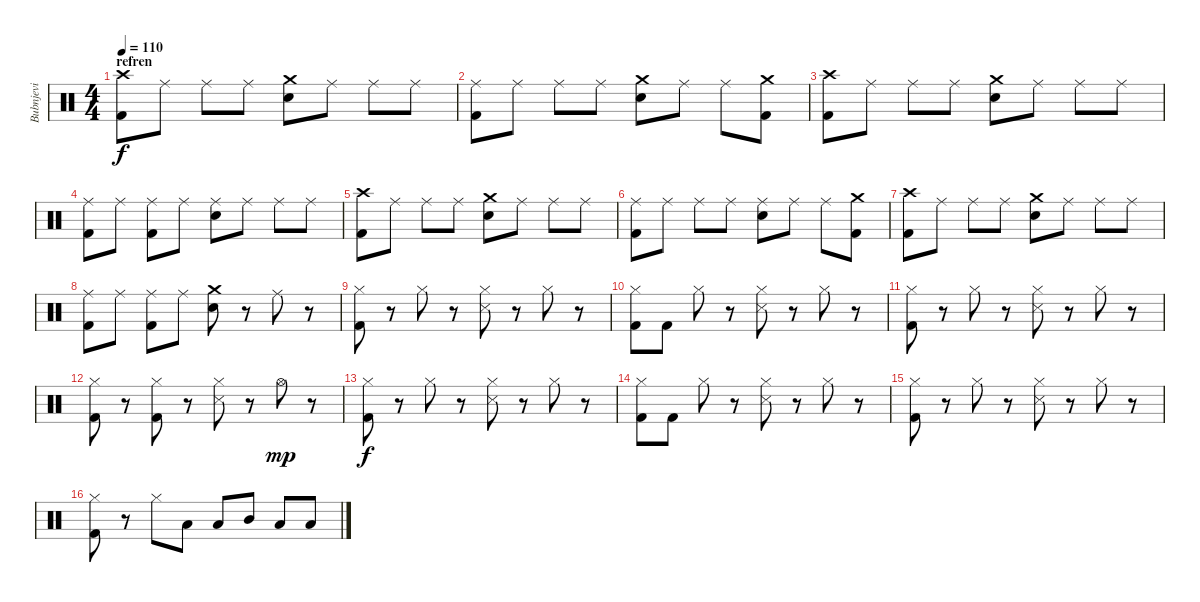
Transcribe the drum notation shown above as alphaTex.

\track ("Bubnjevi" "Bubnjevi") {instrument percussion}
\staff {score}
\articulation defaults
\ts (4 4)
\section ("" "refren")
\tempo 110
\clef neutral
\ks c
("Crash high (hit)" "Kick (hit) 2").8{dy f} "Ride (middle)".8 "Ride (middle)".8 "Ride (middle)".8 ("Crash medium (hit)" "Electric Snare (hit)").8 "Ride (middle)".8 "Ride (middle)".8 "Ride (middle)".8 |
("Ride (middle)" "Kick (hit) 2").8 "Ride (middle)".8 "Ride (middle)".8 "Ride (middle)".8 ("Crash medium (hit)" "Electric Snare (hit)").8 "Ride (middle)".8 "Ride (middle)".8 ("Crash medium (hit)" "Kick (hit) 2").8 |
("Crash high (hit)" "Kick (hit) 2").8 "Ride (middle)".8 "Ride (middle)".8 "Ride (middle)".8 ("Crash medium (hit)" "Electric Snare (hit)").8 "Ride (middle)".8 "Ride (middle)".8 "Ride (middle)".8 |
("Ride (middle)" "Kick (hit) 2").8 "Ride (middle)".8 ("Ride (middle)" "Kick (hit) 2").8 "Ride (middle)".8 ("Ride (middle)" "Electric Snare (hit)").8 "Ride (middle)".8 "Ride (middle)".8 "Ride (middle)".8 |
("Crash high (hit)" "Kick (hit) 2").8 "Ride (middle)".8 "Ride (middle)".8 "Ride (middle)".8 ("Crash medium (hit)" "Electric Snare (hit)").8 "Ride (middle)".8 "Ride (middle)".8 "Ride (middle)".8 |
("Ride (middle)" "Kick (hit) 2").8 "Ride (middle)".8 "Ride (middle)".8 "Ride (middle)".8 ("Ride (middle)" "Electric Snare (hit)").8 "Ride (middle)".8 "Ride (middle)".8 ("Crash medium (hit)" "Kick (hit) 2").8 |
("Crash high (hit)" "Kick (hit) 2").8 "Ride (middle)".8 "Ride (middle)".8 "Ride (middle)".8 ("Crash medium (hit)" "Electric Snare (hit)").8 "Ride (middle)".8 "Ride (middle)".8 "Ride (middle)".8 |
("Ride (middle)" "Kick (hit) 2").8 "Ride (middle)".8 ("Ride (middle)" "Kick (hit) 2").8 "Ride (middle)".8 ("Crash medium (hit)" "Electric Snare (hit)").8 r.8 "Ride (middle)".8 r.8 |
("Hi-Hat (closed)" "Kick (hit) 2").8 r.8 "Hi-Hat (closed)".8 r.8 ("Hi-Hat (closed)" "Snare (side stick) 3").8 r.8 "Hi-Hat (closed)".8 r.8 |
("Hi-Hat (closed)" "Kick (hit) 2").8 "Kick (hit) 2".8 "Hi-Hat (closed)".8 r.8 ("Hi-Hat (closed)" "Snare (side stick) 3").8 r.8 "Hi-Hat (closed)".8 r.8 |
("Hi-Hat (closed)" "Kick (hit) 2").8 r.8 "Hi-Hat (closed)".8 r.8 ("Hi-Hat (closed)" "Snare (side stick) 3").8 r.8 "Hi-Hat (closed)".8 r.8 |
("Hi-Hat (closed)" "Kick (hit) 2").8 r.8 ("Hi-Hat (closed)" "Kick (hit) 2").8 r.8 ("Hi-Hat (closed)" "Snare (side stick) 3").8 r.8 "Hi-Hat (open)".8{dy mp} r.8 |
("Hi-Hat (closed)" "Kick (hit) 2").8{dy f} r.8 "Hi-Hat (closed)".8 r.8 ("Hi-Hat (closed)" "Snare (side stick) 3").8 r.8 "Hi-Hat (closed)".8 r.8 |
("Hi-Hat (closed)" "Kick (hit) 2").8 "Kick (hit) 2".8 "Hi-Hat (closed)".8 r.8 ("Hi-Hat (closed)" "Snare (side stick) 3").8 r.8 "Hi-Hat (closed)".8 r.8 |
("Hi-Hat (closed)" "Kick (hit) 2").8 r.8 "Hi-Hat (closed)".8 r.8 ("Hi-Hat (closed)" "Snare (side stick) 3").8 r.8 "Hi-Hat (closed)".8 r.8 |
("Hi-Hat (closed)" "Kick (hit) 2").8 r.8 "Hi-Hat (closed)".8 "Low Tom (hit)".8 "Low Tom (hit)".8 "Mid Tom (hit)".8 "Low Tom (hit)".8 "Low Tom (hit)".8
